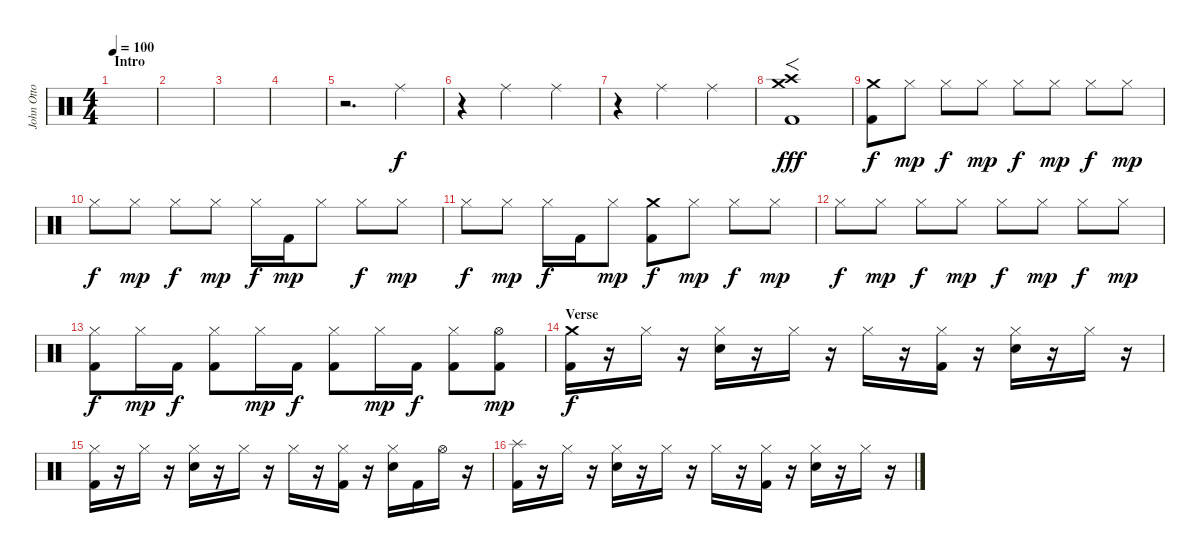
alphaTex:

\track ("John Otto - Drums" "John Otto ") {instrument percussion}
\staff {score}
\articulation defaults
\ts (4 4)
\section ("" "Intro")
\tempo 100
\clef neutral
\ks c
|
|
|
|
r.2{d} "Ride (middle)".4 |
r.4 "Ride (middle)".2 "Ride (middle)".4 |
r.4 "Ride (middle)".2 "Ride (middle)".4 |
("Crash medium (hit)" "Crash high (hit)" "Kick (hit) 2").1{f dy fff} |
("Crash medium (hit)" "Kick (hit) 2").8{dy f} "Hi-Hat (closed)".8{dy mp} "Hi-Hat (closed)".8{dy f} "Hi-Hat (closed)".8{dy mp} "Hi-Hat (closed)".8{dy f} "Hi-Hat (closed)".8{dy mp} "Hi-Hat (closed)".8{dy f} "Hi-Hat (closed)".8{dy mp} |
"Hi-Hat (closed)".8{dy f} "Hi-Hat (closed)".8{dy mp} "Hi-Hat (closed)".8{dy f} "Hi-Hat (closed)".8{dy mp} "Hi-Hat (closed)".16{dy f} "Kick (hit) 2".16{dy mp} "Hi-Hat (closed)".8 "Hi-Hat (closed)".8{dy f} "Hi-Hat (closed)".8{dy mp} |
"Hi-Hat (closed)".8{dy f} "Hi-Hat (closed)".8{dy mp} "Hi-Hat (closed)".16{dy f} "Kick (hit) 2".16 "Hi-Hat (closed)".8{dy mp} ("Crash medium (hit)" "Kick (hit) 2").8{dy f} "Hi-Hat (closed)".8{dy mp} "Hi-Hat (closed)".8{dy f} "Hi-Hat (closed)".8{dy mp} |
"Hi-Hat (closed)".8{dy f} "Hi-Hat (closed)".8{dy mp} "Hi-Hat (closed)".8{dy f} "Hi-Hat (closed)".8{dy mp} "Hi-Hat (closed)".8{dy f} "Hi-Hat (closed)".8{dy mp} "Hi-Hat (closed)".8{dy f} "Hi-Hat (closed)".8{dy mp} |
("Hi-Hat (closed)" "Kick (hit) 2").8{dy f} "Hi-Hat (closed)".16{dy mp} "Kick (hit) 2".16{dy f} ("Hi-Hat (closed)" "Kick (hit) 2").8 "Hi-Hat (closed)".16{dy mp} "Kick (hit) 2".16{dy f} ("Hi-Hat (closed)" "Kick (hit) 2").8 "Hi-Hat (closed)".16{dy mp} "Kick (hit) 2".16{dy f} ("Hi-Hat (closed)" "Kick (hit) 2").8 ("Hi-Hat (open)" "Kick (hit) 2").8{dy mp} |
\section ("" "Verse")
("Crash medium (hit)" "Kick (hit) 2").16{dy f} r.16 "Hi-Hat (closed)".16 r.16 ("Hi-Hat (closed)" "Electric Snare (hit)").16 r.16 "Hi-Hat (closed)".16 r.16 "Hi-Hat (closed)".16 r.16 ("Hi-Hat (closed)" "Kick (hit) 2").16 r.16 ("Hi-Hat (closed)" "Electric Snare (hit)").16 r.16 "Hi-Hat (closed)".16 r.16 |
("Hi-Hat (closed)" "Kick (hit) 2").16 r.16 "Hi-Hat (closed)".16 r.16 ("Hi-Hat (closed)" "Electric Snare (hit)").16 r.16 "Hi-Hat (closed)".16 r.16 "Hi-Hat (closed)".16 r.16 ("Hi-Hat (closed)" "Kick (hit) 2").16 r.16 ("Hi-Hat (closed)" "Electric Snare (hit)").16 "Kick (hit) 2".16 "Hi-Hat (open)".16 r.16 |
("Splash (hit)" "Kick (hit) 2").16 r.16 "Hi-Hat (closed)".16 r.16 ("Hi-Hat (closed)" "Electric Snare (hit)").16 r.16 "Hi-Hat (closed)".16 r.16 "Hi-Hat (closed)".16 r.16 ("Hi-Hat (closed)" "Kick (hit) 2").16 r.16 ("Hi-Hat (closed)" "Electric Snare (hit)").16 r.16 "Hi-Hat (closed)".16 r.16
